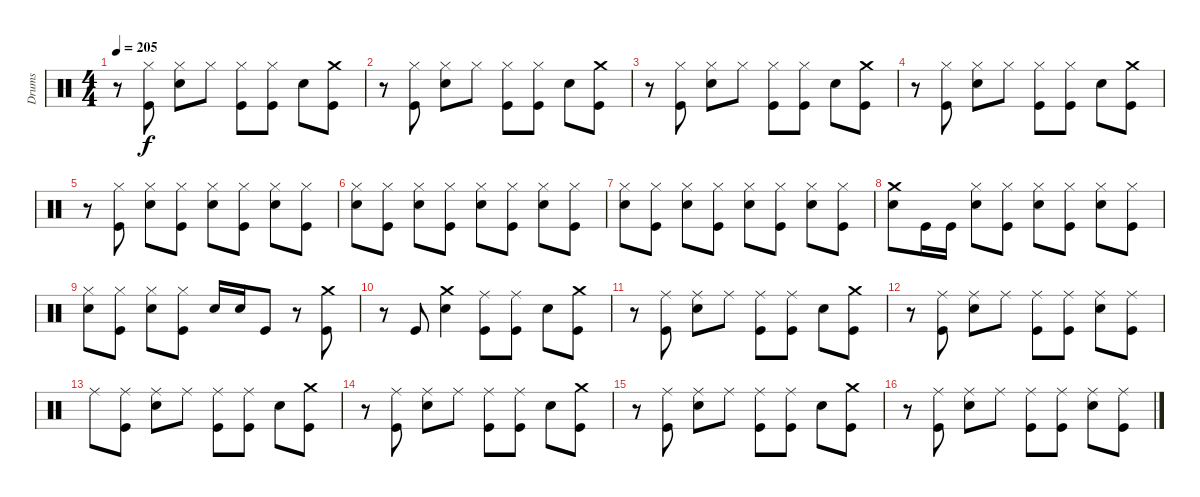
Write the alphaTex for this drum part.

\track ("Drums" "Drums") {instrument percussion}
\staff {score}
\articulation defaults
\ts (4 4)
\tempo 205
\clef neutral
\ks c
r.8{dy f} ("Hi-Hat (closed)" "Kick (hit)").8 ("Hi-Hat (closed)" "Electric Snare (hit)").8 "Hi-Hat (closed)".8 ("Hi-Hat (closed)" "Kick (hit)").8 ("Hi-Hat (closed)" "Kick (hit)").8 "Electric Snare (hit)".8 ("Crash medium (hit)" "Kick (hit)").8 |
r.8 ("Hi-Hat (closed)" "Kick (hit)").8 ("Hi-Hat (closed)" "Electric Snare (hit)").8 "Hi-Hat (closed)".8 ("Hi-Hat (closed)" "Kick (hit)").8 ("Hi-Hat (closed)" "Kick (hit)").8 "Electric Snare (hit)".8 ("Crash medium (hit)" "Kick (hit)").8 |
r.8 ("Hi-Hat (closed)" "Kick (hit)").8 ("Hi-Hat (closed)" "Electric Snare (hit)").8 "Hi-Hat (closed)".8 ("Hi-Hat (closed)" "Kick (hit)").8 ("Hi-Hat (closed)" "Kick (hit)").8 "Electric Snare (hit)".8 ("Crash medium (hit)" "Kick (hit)").8 |
r.8 ("Hi-Hat (closed)" "Kick (hit)").8 ("Hi-Hat (closed)" "Electric Snare (hit)").8 "Hi-Hat (closed)".8 ("Hi-Hat (closed)" "Kick (hit)").8 ("Hi-Hat (closed)" "Kick (hit)").8 "Electric Snare (hit)".8 ("Crash medium (hit)" "Kick (hit)").8 |
r.8 ("Hi-Hat (closed)" "Kick (hit)").8 ("Hi-Hat (closed)" "Electric Snare (hit)").8 ("Hi-Hat (closed)" "Kick (hit)").8 ("Hi-Hat (closed)" "Electric Snare (hit)").8 ("Hi-Hat (closed)" "Kick (hit)").8 ("Hi-Hat (closed)" "Electric Snare (hit)").8 ("Hi-Hat (closed)" "Kick (hit)").8 |
("Hi-Hat (closed)" "Electric Snare (hit)").8 ("Hi-Hat (closed)" "Kick (hit)").8 ("Hi-Hat (closed)" "Electric Snare (hit)").8 ("Hi-Hat (closed)" "Kick (hit)").8 ("Hi-Hat (closed)" "Electric Snare (hit)").8 ("Hi-Hat (closed)" "Kick (hit)").8 ("Hi-Hat (closed)" "Electric Snare (hit)").8 ("Hi-Hat (closed)" "Kick (hit)").8 |
("Hi-Hat (closed)" "Electric Snare (hit)").8 ("Hi-Hat (closed)" "Kick (hit)").8 ("Hi-Hat (closed)" "Electric Snare (hit)").8 ("Hi-Hat (closed)" "Kick (hit)").8 ("Hi-Hat (closed)" "Electric Snare (hit)").8 ("Hi-Hat (closed)" "Kick (hit)").8 ("Hi-Hat (closed)" "Electric Snare (hit)").8 ("Hi-Hat (closed)" "Kick (hit)").8 |
("Crash medium (hit)" "Electric Snare (hit)").8 "Kick (hit)".16 "Kick (hit)".16 ("Hi-Hat (closed)" "Electric Snare (hit)").8 ("Hi-Hat (closed)" "Kick (hit)").8 ("Hi-Hat (closed)" "Electric Snare (hit)").8 ("Hi-Hat (closed)" "Kick (hit)").8 ("Hi-Hat (closed)" "Electric Snare (hit)").8 ("Hi-Hat (closed)" "Kick (hit)").8 |
("Hi-Hat (closed)" "Electric Snare (hit)").8 ("Hi-Hat (closed)" "Kick (hit)").8 ("Hi-Hat (closed)" "Electric Snare (hit)").8 ("Hi-Hat (closed)" "Kick (hit)").8 "Electric Snare (hit)".16 "Electric Snare (hit)".16 "Kick (hit)".8 r.8 ("Crash medium (hit)" "Kick (hit)").8 |
r.8 "Kick (hit)".8 ("Crash medium (hit)" "Electric Snare (hit)").4 ("Ride (middle)" "Kick (hit)").8 ("Ride (middle)" "Kick (hit)").8 "Electric Snare (hit)".8 ("Crash medium (hit)" "Kick (hit)").8 |
r.8 ("Ride (middle)" "Kick (hit)").8 ("Ride (middle)" "Electric Snare (hit)").8 "Ride (middle)".8 ("Ride (middle)" "Kick (hit)").8 ("Ride (middle)" "Kick (hit)").8 "Electric Snare (hit)".8 ("Crash medium (hit)" "Kick (hit)").8 |
r.8 ("Ride (middle)" "Kick (hit)").8 ("Ride (middle)" "Electric Snare (hit)").8 "Ride (middle)".8 ("Ride (middle)" "Kick (hit)").8 ("Ride (middle)" "Kick (hit)").8 ("Ride (middle)" "Electric Snare (hit)").8 ("Ride (middle)" "Kick (hit)").8 |
"Ride (middle)".8 ("Ride (middle)" "Kick (hit)").8 ("Ride (middle)" "Electric Snare (hit)").8 "Ride (middle)".8 ("Ride (middle)" "Kick (hit)").8 ("Ride (middle)" "Kick (hit)").8 "Electric Snare (hit)".8 ("Crash medium (hit)" "Kick (hit)").8 |
r.8 ("Ride (middle)" "Kick (hit)").8 ("Ride (middle)" "Electric Snare (hit)").8 "Ride (middle)".8 ("Ride (middle)" "Kick (hit)").8 ("Ride (middle)" "Kick (hit)").8 "Electric Snare (hit)".8 ("Crash medium (hit)" "Kick (hit)").8 |
r.8 ("Ride (middle)" "Kick (hit)").8 ("Ride (middle)" "Electric Snare (hit)").8 "Ride (middle)".8 ("Ride (middle)" "Kick (hit)").8 ("Ride (middle)" "Kick (hit)").8 "Electric Snare (hit)".8 ("Crash medium (hit)" "Kick (hit)").8 |
r.8 ("Ride (middle)" "Kick (hit)").8 ("Ride (middle)" "Electric Snare (hit)").8 "Ride (middle)".8 ("Ride (middle)" "Kick (hit)").8 ("Ride (middle)" "Kick (hit)").8 ("Ride (middle)" "Electric Snare (hit)").8 ("Ride (middle)" "Kick (hit)").8
